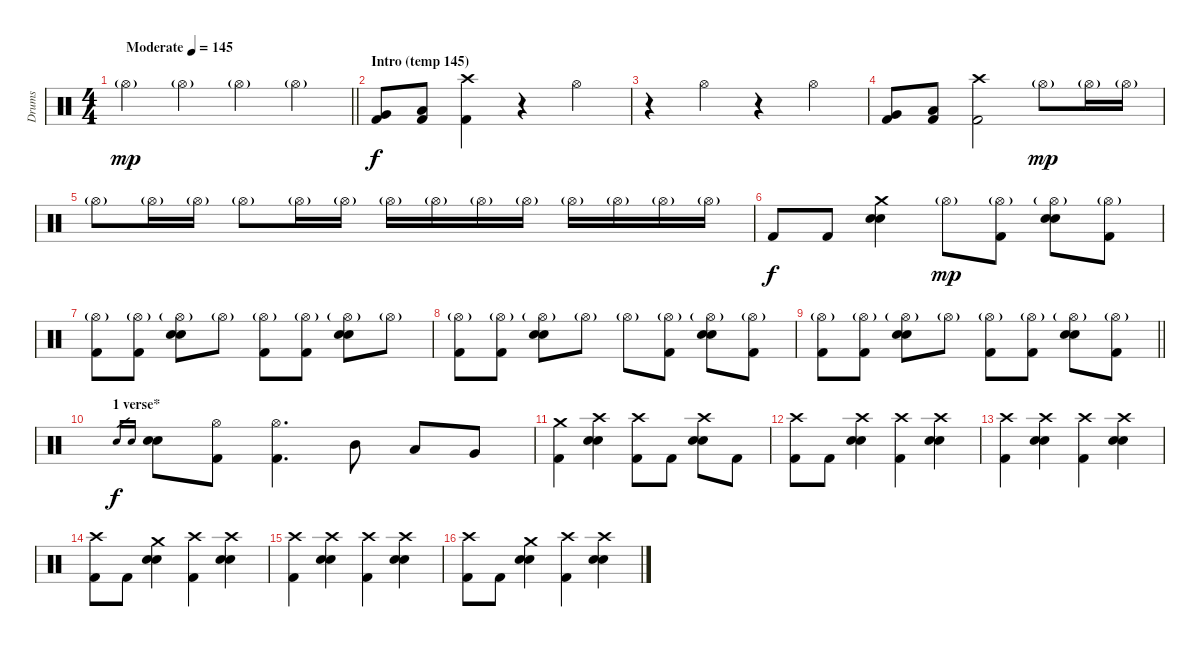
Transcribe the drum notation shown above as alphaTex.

\track ("Drums" "Drums") {instrument percussion}
\staff {score}
\articulation defaults
\ts (4 4)
\tempo (145 "Moderate")
\clef neutral
\barLineRight lightlight
\ks c "Hi-Hat (open)"{g}.4{dy mp} "Hi-Hat (open)"{g}.4 "Hi-Hat (open)"{g}.4 "Hi-Hat (open)"{g}.4
|
\section ("" "Intro (temp 145)")
("Very Low Tom (hit)" "Kick (hit) 2").8{dy f} ("Low Floor Tom (hit)" "Kick (hit) 2").8 ("Crash high (hit)" "Kick (hit) 2").4 r.4 "Hi-Hat (open)".4 |
r.4 "Hi-Hat (open)".4 r.4 "Hi-Hat (open)".4 |
("Very Low Tom (hit)" "Kick (hit) 2").8 ("Low Floor Tom (hit)" "Kick (hit) 2").8 ("Crash high (hit)" "Kick (hit) 2").2 "Hi-Hat (open)"{g}.8{dy mp} "Hi-Hat (open)"{g}.16 "Hi-Hat (open)"{g}.16 |
"Hi-Hat (open)"{g}.8 "Hi-Hat (open)"{g}.16 "Hi-Hat (open)"{g}.16 "Hi-Hat (open)"{g}.8 "Hi-Hat (open)"{g}.16 "Hi-Hat (open)"{g}.16 "Hi-Hat (open)"{g}.16 "Hi-Hat (open)"{g}.16 "Hi-Hat (open)"{g}.16 "Hi-Hat (open)"{g}.16 "Hi-Hat (open)"{g}.16 "Hi-Hat (open)"{g}.16 "Hi-Hat (open)"{g}.16 "Hi-Hat (open)"{g}.16 |
"Kick (hit) 2".8{dy f} "Kick (hit) 2".8 ("Crash medium (hit)" "Electric Snare (hit)" "Electric Snare (hit)").4 "Hi-Hat (open)"{g}.8{dy mp} ("Hi-Hat (open)"{g} "Kick (hit) 2").8 ("Hi-Hat (open)"{g} "Electric Snare (hit)" "Electric Snare (hit)").8 ("Hi-Hat (open)"{g} "Kick (hit) 2").8 |
("Hi-Hat (open)"{g} "Kick (hit) 2").8 ("Hi-Hat (open)"{g} "Kick (hit) 2").8 ("Hi-Hat (open)"{g} "Electric Snare (hit)" "Electric Snare (hit)").8 "Hi-Hat (open)"{g}.8 ("Hi-Hat (open)"{g} "Kick (hit) 2").8 ("Hi-Hat (open)"{g} "Kick (hit) 2").8 ("Hi-Hat (open)"{g} "Electric Snare (hit)" "Electric Snare (hit)").8 "Hi-Hat (open)"{g}.8 |
("Hi-Hat (open)"{g} "Kick (hit) 2").8 ("Hi-Hat (open)"{g} "Kick (hit) 2").8 ("Hi-Hat (open)"{g} "Electric Snare (hit)" "Electric Snare (hit)").8 "Hi-Hat (open)"{g}.8 "Hi-Hat (open)"{g}.8 ("Hi-Hat (open)"{g} "Kick (hit) 2").8 ("Hi-Hat (open)"{g} "Electric Snare (hit)" "Electric Snare (hit)").8 ("Hi-Hat (open)"{g} "Kick (hit) 2").8 |
\barLineRight lightlight
("Hi-Hat (open)"{g} "Kick (hit) 2").8 ("Hi-Hat (open)"{g} "Kick (hit) 2").8 ("Hi-Hat (open)"{g} "Electric Snare (hit)" "Electric Snare (hit)").8 "Hi-Hat (open)"{g}.8 ("Hi-Hat (open)"{g} "Kick (hit) 2").8 ("Hi-Hat (open)"{g} "Kick (hit) 2").8 ("Hi-Hat (open)"{g} "Electric Snare (hit)" "Electric Snare (hit)").8 ("Hi-Hat (open)"{g} "Kick (hit) 2").8 |
\section ("" "1 verse*")
"Electric Snare (hit)".16{gr dy f} "Electric Snare (hit)".16{gr} ("Electric Snare (hit)" "Electric Snare (hit)").8 ("Hi-Hat (open)" "Kick (hit) 2").8 ("Hi-Hat (open)" "Kick (hit) 2").4{d} "Mid Tom (hit)".8 "Low Tom (hit)".8 "Very Low Tom (hit)".8 |
("Crash medium (hit)" "Kick (hit) 2").4 ("Crash high (hit)" "Electric Snare (hit)" "Electric Snare (hit)").4 ("Crash high (hit)" "Kick (hit) 2").8 "Kick (hit) 2".8 ("Crash high (hit)" "Electric Snare (hit)" "Electric Snare (hit)").8 "Kick (hit) 2".8 |
("Crash high (hit)" "Kick (hit) 2").8 "Kick (hit) 2".8 ("Crash high (hit)" "Electric Snare (hit)" "Electric Snare (hit)").4 ("Crash high (hit)" "Kick (hit) 2").4 ("Crash high (hit)" "Electric Snare (hit)" "Electric Snare (hit)").4 |
("Crash high (hit)" "Kick (hit) 2").4 ("Crash high (hit)" "Electric Snare (hit)" "Electric Snare (hit)").4 ("Crash high (hit)" "Kick (hit) 2").4 ("Crash high (hit)" "Electric Snare (hit)" "Electric Snare (hit)").4 |
("Crash high (hit)" "Kick (hit) 2").8 "Kick (hit) 2".8 ("Crash medium (hit)" "Electric Snare (hit)" "Electric Snare (hit)").4 ("Crash high (hit)" "Kick (hit) 2").4 ("Crash high (hit)" "Electric Snare (hit)" "Electric Snare (hit)").4 |
("Crash high (hit)" "Kick (hit) 2").4 ("Crash high (hit)" "Electric Snare (hit)" "Electric Snare (hit)").4 ("Crash high (hit)" "Kick (hit) 2").4 ("Crash high (hit)" "Electric Snare (hit)" "Electric Snare (hit)").4 |
("Crash high (hit)" "Kick (hit) 2").8 "Kick (hit) 2".8 ("Crash medium (hit)" "Electric Snare (hit)" "Electric Snare (hit)").4 ("Crash high (hit)" "Kick (hit) 2").4 ("Crash high (hit)" "Electric Snare (hit)" "Electric Snare (hit)").4
